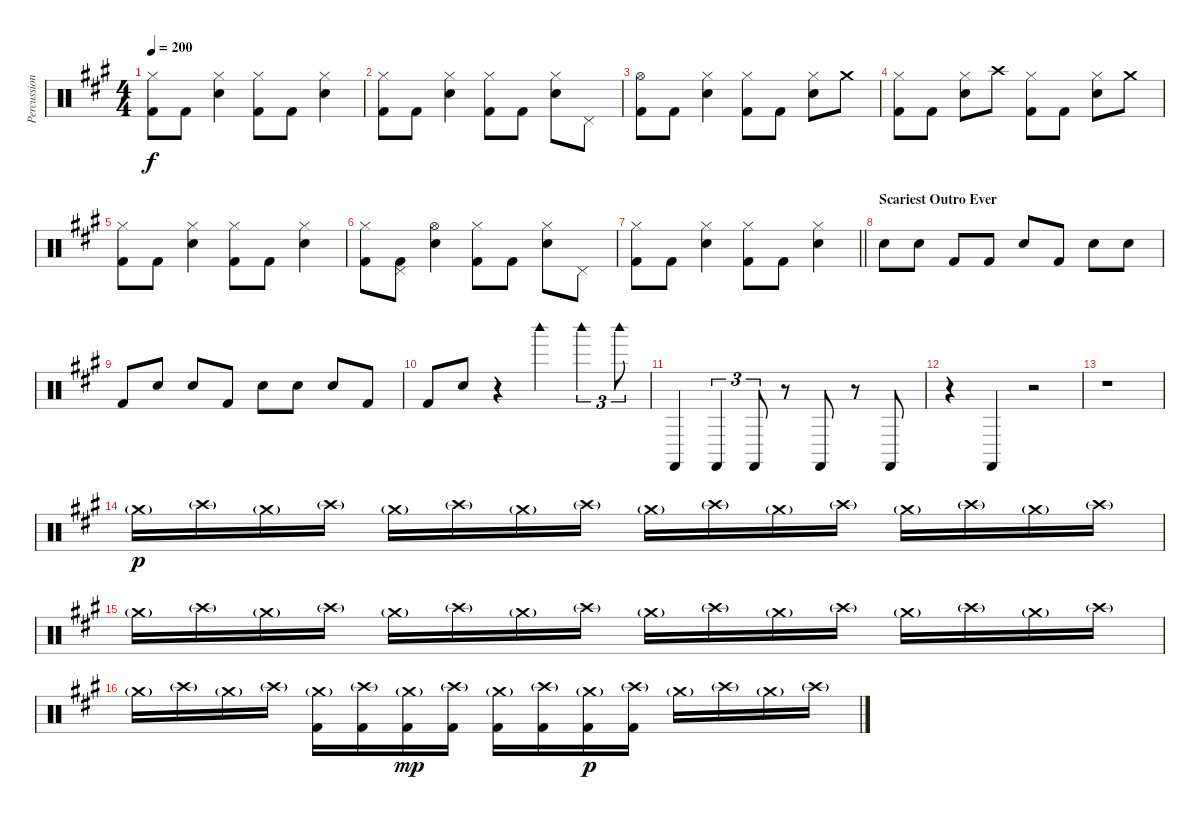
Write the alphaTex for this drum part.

\track ("Percussion" "Percussion") {instrument percussion}
\staff {score}
\articulation defaults
\ts (4 4)
\tempo 200
\clef neutral
\ks f#minor
("Hi-Hat (closed)" "Kick (hit) 2").8{dy f} "Kick (hit) 2".8 ("Hi-Hat (closed)" "Electric Snare (hit)").4 ("Hi-Hat (closed)" "Kick (hit) 2").8 "Kick (hit) 2".8 ("Hi-Hat (closed)" "Electric Snare (hit)").4 |
("Hi-Hat (closed)" "Kick (hit) 2").8 "Kick (hit) 2".8 ("Hi-Hat (closed)" "Electric Snare (hit)").4 ("Hi-Hat (closed)" "Kick (hit) 2").8 "Kick (hit) 2".8 ("Hi-Hat (closed)" "Electric Snare (hit)").8 "Pedal Hi-Hat (hit)".8 |
("Hi-Hat (open)" "Kick (hit) 2").8 "Kick (hit) 2".8 ("Hi-Hat (closed)" "Electric Snare (hit)").4 ("Hi-Hat (closed)" "Kick (hit) 2").8 "Kick (hit) 2".8 ("Hi-Hat (closed)" "Electric Snare (hit)").8 "Crash medium (hit)".8 |
("Hi-Hat (closed)" "Kick (hit) 2").8 "Kick (hit) 2".8 ("Hi-Hat (closed)" "Electric Snare (hit)").8 "Crash high (hit)".8 ("Hi-Hat (closed)" "Kick (hit) 2").8 "Kick (hit) 2".8 ("Hi-Hat (closed)" "Electric Snare (hit)").8 "Crash medium (hit)".8 |
("Hi-Hat (closed)" "Kick (hit) 2").8 "Kick (hit) 2".8 ("Hi-Hat (closed)" "Electric Snare (hit)").4 ("Hi-Hat (closed)" "Kick (hit) 2").8 "Kick (hit) 2".8 ("Hi-Hat (closed)" "Electric Snare (hit)").4 |
("Hi-Hat (closed)" "Kick (hit) 2").8 ("Pedal Hi-Hat (hit)" "Kick (hit) 2").8 ("Hi-Hat (open)" "Electric Snare (hit)").4 ("Hi-Hat (closed)" "Kick (hit) 2").8 "Kick (hit) 2".8 ("Hi-Hat (closed)" "Electric Snare (hit)").8 "Pedal Hi-Hat (hit)".8 |
\barLineRight lightlight
("Hi-Hat (closed)" "Kick (hit) 2").8 "Kick (hit) 2".8 ("Hi-Hat (closed)" "Electric Snare (hit)").4 ("Hi-Hat (closed)" "Kick (hit) 2").8 "Kick (hit) 2".8 ("Hi-Hat (closed)" "Electric Snare (hit)").4 |
\section ("" "Scariest Outro Ever")
"Electric Snare (hit)".8 "Electric Snare (hit)".8 "Kick (hit) 2".8 "Kick (hit) 2".8 "Electric Snare (hit)".8 "Kick (hit) 2".8 "Electric Snare (hit)".8 "Electric Snare (hit)".8 |
"Kick (hit) 2".8 "Electric Snare (hit)".8 "Electric Snare (hit)".8 "Kick (hit) 2".8 "Electric Snare (hit)".8 "Electric Snare (hit)".8 "Electric Snare (hit)".8 "Kick (hit) 2".8 |
"Kick (hit) 2".8 "Electric Snare (hit)".8 r.4 "Woodblock high (hit)".4{balance 0} "Woodblock high (hit)".4{tu (3 2)} "Woodblock high (hit)".8{tu (3 2)} |
"Castanets (hit)".4 "Castanets (hit)".4{tu (3 2)} "Castanets (hit)".8{tu (3 2)} r.8 "Castanets (hit)".8 r.8 "Castanets (hit)".8 |
r.4 "Castanets (hit)".4 r.2{volume 3 balance 8} |
r.1 |
"Crash medium (hit)"{g}.16{dy p volume 12} "Crash high (hit)"{g}.16 "Crash medium (hit)"{g}.16 "Crash high (hit)"{g}.16 "Crash medium (hit)"{g}.16 "Crash high (hit)"{g}.16 "Crash medium (hit)"{g}.16 "Crash high (hit)"{g}.16 "Crash medium (hit)"{g}.16 "Crash high (hit)"{g}.16 "Crash medium (hit)"{g}.16 "Crash high (hit)"{g}.16 "Crash medium (hit)"{g}.16 "Crash high (hit)"{g}.16 "Crash medium (hit)"{g}.16 "Crash high (hit)"{g}.16 |
"Crash medium (hit)"{g}.16 "Crash high (hit)"{g}.16 "Crash medium (hit)"{g}.16 "Crash high (hit)"{g}.16 "Crash medium (hit)"{g}.16 "Crash high (hit)"{g}.16 "Crash medium (hit)"{g}.16 "Crash high (hit)"{g}.16 "Crash medium (hit)"{g}.16 "Crash high (hit)"{g}.16 "Crash medium (hit)"{g}.16 "Crash high (hit)"{g}.16 "Crash medium (hit)"{g}.16 "Crash high (hit)"{g}.16 "Crash medium (hit)"{g}.16 "Crash high (hit)"{g}.16 |
"Crash medium (hit)"{g}.16 "Crash high (hit)"{g}.16 "Crash medium (hit)"{g}.16 "Crash high (hit)"{g}.16 ("Crash medium (hit)"{g} "Kick (hit) 2").16 ("Crash high (hit)"{g} "Kick (hit) 2").16 ("Crash medium (hit)"{g} "Kick (hit) 2").16{dy mp} ("Crash high (hit)"{g} "Kick (hit) 2").16 ("Crash medium (hit)"{g} "Kick (hit) 2").16 ("Crash high (hit)"{g} "Kick (hit) 2").16 ("Crash medium (hit)"{g} "Kick (hit) 2").16{dy p} ("Crash high (hit)"{g} "Kick (hit) 2").16 "Crash medium (hit)"{g}.16 "Crash high (hit)"{g}.16 "Crash medium (hit)"{g}.16 "Crash high (hit)"{g}.16
